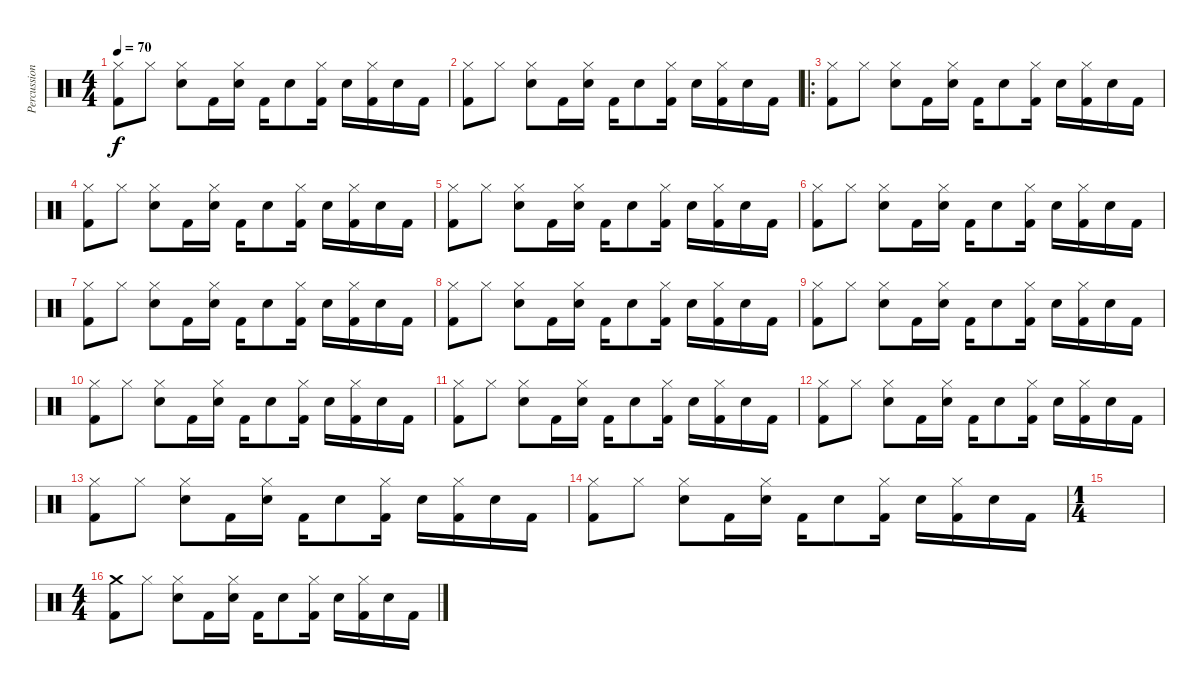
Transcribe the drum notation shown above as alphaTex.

\track ("Percussion" "Percussion") {instrument percussion}
\staff {score}
\articulation defaults
\ts (4 4)
\tempo 70
\clef neutral
\ks c
("Hi-Hat (closed)" "Kick (hit) 2").8{dy f} "Hi-Hat (closed)".8 ("Hi-Hat (closed)" "Snare (hit) 2").8 "Kick (hit) 2".16 ("Hi-Hat (closed)" "Snare (hit) 2").16 "Kick (hit) 2".16 "Snare (hit) 2".8 ("Hi-Hat (closed)" "Kick (hit) 2").16 "Snare (hit) 2".16 ("Hi-Hat (closed)" "Kick (hit) 2").16 "Snare (hit) 2".16 "Kick (hit) 2".16 |
("Hi-Hat (closed)" "Kick (hit) 2").8 "Hi-Hat (closed)".8 ("Hi-Hat (closed)" "Snare (hit) 2").8 "Kick (hit) 2".16 ("Hi-Hat (closed)" "Snare (hit) 2").16 "Kick (hit) 2".16 "Snare (hit) 2".8 ("Hi-Hat (closed)" "Kick (hit) 2").16 "Snare (hit) 2".16 ("Hi-Hat (closed)" "Kick (hit) 2").16 "Snare (hit) 2".16 "Kick (hit) 2".16 |
\ro
("Hi-Hat (closed)" "Kick (hit) 2").8 "Hi-Hat (closed)".8 ("Hi-Hat (closed)" "Snare (hit) 2").8 "Kick (hit) 2".16 ("Hi-Hat (closed)" "Snare (hit) 2").16 "Kick (hit) 2".16 "Snare (hit) 2".8 ("Hi-Hat (closed)" "Kick (hit) 2").16 "Snare (hit) 2".16 ("Hi-Hat (closed)" "Kick (hit) 2").16 "Snare (hit) 2".16 "Kick (hit) 2".16 |
("Hi-Hat (closed)" "Kick (hit) 2").8 "Hi-Hat (closed)".8 ("Hi-Hat (closed)" "Snare (hit) 2").8 "Kick (hit) 2".16 ("Hi-Hat (closed)" "Snare (hit) 2").16 "Kick (hit) 2".16 "Snare (hit) 2".8 ("Hi-Hat (closed)" "Kick (hit) 2").16 "Snare (hit) 2".16 ("Hi-Hat (closed)" "Kick (hit) 2").16 "Snare (hit) 2".16 "Kick (hit) 2".16 |
("Hi-Hat (closed)" "Kick (hit) 2").8 "Hi-Hat (closed)".8 ("Hi-Hat (closed)" "Snare (hit) 2").8 "Kick (hit) 2".16 ("Hi-Hat (closed)" "Snare (hit) 2").16 "Kick (hit) 2".16 "Snare (hit) 2".8 ("Hi-Hat (closed)" "Kick (hit) 2").16 "Snare (hit) 2".16 ("Hi-Hat (closed)" "Kick (hit) 2").16 "Snare (hit) 2".16 "Kick (hit) 2".16 |
("Hi-Hat (closed)" "Kick (hit) 2").8 "Hi-Hat (closed)".8 ("Hi-Hat (closed)" "Snare (hit) 2").8 "Kick (hit) 2".16 ("Hi-Hat (closed)" "Snare (hit) 2").16 "Kick (hit) 2".16 "Snare (hit) 2".8 ("Hi-Hat (closed)" "Kick (hit) 2").16 "Snare (hit) 2".16 ("Hi-Hat (closed)" "Kick (hit) 2").16 "Snare (hit) 2".16 "Kick (hit) 2".16 |
("Hi-Hat (closed)" "Kick (hit) 2").8 "Hi-Hat (closed)".8 ("Hi-Hat (closed)" "Snare (hit) 2").8 "Kick (hit) 2".16 ("Hi-Hat (closed)" "Snare (hit) 2").16 "Kick (hit) 2".16 "Snare (hit) 2".8 ("Hi-Hat (closed)" "Kick (hit) 2").16 "Snare (hit) 2".16 ("Hi-Hat (closed)" "Kick (hit) 2").16 "Snare (hit) 2".16 "Kick (hit) 2".16 |
("Hi-Hat (closed)" "Kick (hit) 2").8 "Hi-Hat (closed)".8 ("Hi-Hat (closed)" "Snare (hit) 2").8 "Kick (hit) 2".16 ("Hi-Hat (closed)" "Snare (hit) 2").16 "Kick (hit) 2".16 "Snare (hit) 2".8 ("Hi-Hat (closed)" "Kick (hit) 2").16 "Snare (hit) 2".16 ("Hi-Hat (closed)" "Kick (hit) 2").16 "Snare (hit) 2".16 "Kick (hit) 2".16 |
("Hi-Hat (closed)" "Kick (hit) 2").8 "Hi-Hat (closed)".8 ("Hi-Hat (closed)" "Snare (hit) 2").8 "Kick (hit) 2".16 ("Hi-Hat (closed)" "Snare (hit) 2").16 "Kick (hit) 2".16 "Snare (hit) 2".8 ("Hi-Hat (closed)" "Kick (hit) 2").16 "Snare (hit) 2".16 ("Hi-Hat (closed)" "Kick (hit) 2").16 "Snare (hit) 2".16 "Kick (hit) 2".16 |
("Hi-Hat (closed)" "Kick (hit) 2").8 "Hi-Hat (closed)".8 ("Hi-Hat (closed)" "Snare (hit) 2").8 "Kick (hit) 2".16 ("Hi-Hat (closed)" "Snare (hit) 2").16 "Kick (hit) 2".16 "Snare (hit) 2".8 ("Hi-Hat (closed)" "Kick (hit) 2").16 "Snare (hit) 2".16 ("Hi-Hat (closed)" "Kick (hit) 2").16 "Snare (hit) 2".16 "Kick (hit) 2".16 |
("Hi-Hat (closed)" "Kick (hit) 2").8 "Hi-Hat (closed)".8 ("Hi-Hat (closed)" "Snare (hit) 2").8 "Kick (hit) 2".16 ("Hi-Hat (closed)" "Snare (hit) 2").16 "Kick (hit) 2".16 "Snare (hit) 2".8 ("Hi-Hat (closed)" "Kick (hit) 2").16 "Snare (hit) 2".16 ("Hi-Hat (closed)" "Kick (hit) 2").16 "Snare (hit) 2".16 "Kick (hit) 2".16 |
("Hi-Hat (closed)" "Kick (hit) 2").8 "Hi-Hat (closed)".8 ("Hi-Hat (closed)" "Snare (hit) 2").8 "Kick (hit) 2".16 ("Hi-Hat (closed)" "Snare (hit) 2").16 "Kick (hit) 2".16 "Snare (hit) 2".8 ("Hi-Hat (closed)" "Kick (hit) 2").16 "Snare (hit) 2".16 ("Hi-Hat (closed)" "Kick (hit) 2").16 "Snare (hit) 2".16 "Kick (hit) 2".16 |
("Hi-Hat (closed)" "Kick (hit) 2").8 "Hi-Hat (closed)".8 ("Hi-Hat (closed)" "Snare (hit) 2").8 "Kick (hit) 2".16 ("Hi-Hat (closed)" "Snare (hit) 2").16 "Kick (hit) 2".16 "Snare (hit) 2".8 ("Hi-Hat (closed)" "Kick (hit) 2").16 "Snare (hit) 2".16 ("Hi-Hat (closed)" "Kick (hit) 2").16 "Snare (hit) 2".16 "Kick (hit) 2".16 |
("Hi-Hat (closed)" "Kick (hit) 2").8 "Hi-Hat (closed)".8 ("Hi-Hat (closed)" "Snare (hit) 2").8 "Kick (hit) 2".16 ("Hi-Hat (closed)" "Snare (hit) 2").16 "Kick (hit) 2".16 "Snare (hit) 2".8 ("Hi-Hat (closed)" "Kick (hit) 2").16 "Snare (hit) 2".16 ("Hi-Hat (closed)" "Kick (hit) 2").16 "Snare (hit) 2".16 "Kick (hit) 2".16 |
\ts (1 4)
|
\ts (4 4)
("Crash medium (hit)" "Kick (hit) 2").8 "Hi-Hat (closed)".8 ("Hi-Hat (closed)" "Snare (hit) 2").8 "Kick (hit) 2".16 ("Hi-Hat (closed)" "Snare (hit) 2").16 "Kick (hit) 2".16 "Snare (hit) 2".8 ("Hi-Hat (closed)" "Kick (hit) 2").16 "Snare (hit) 2".16 ("Hi-Hat (closed)" "Kick (hit) 2").16 "Snare (hit) 2".16 "Kick (hit) 2".16
